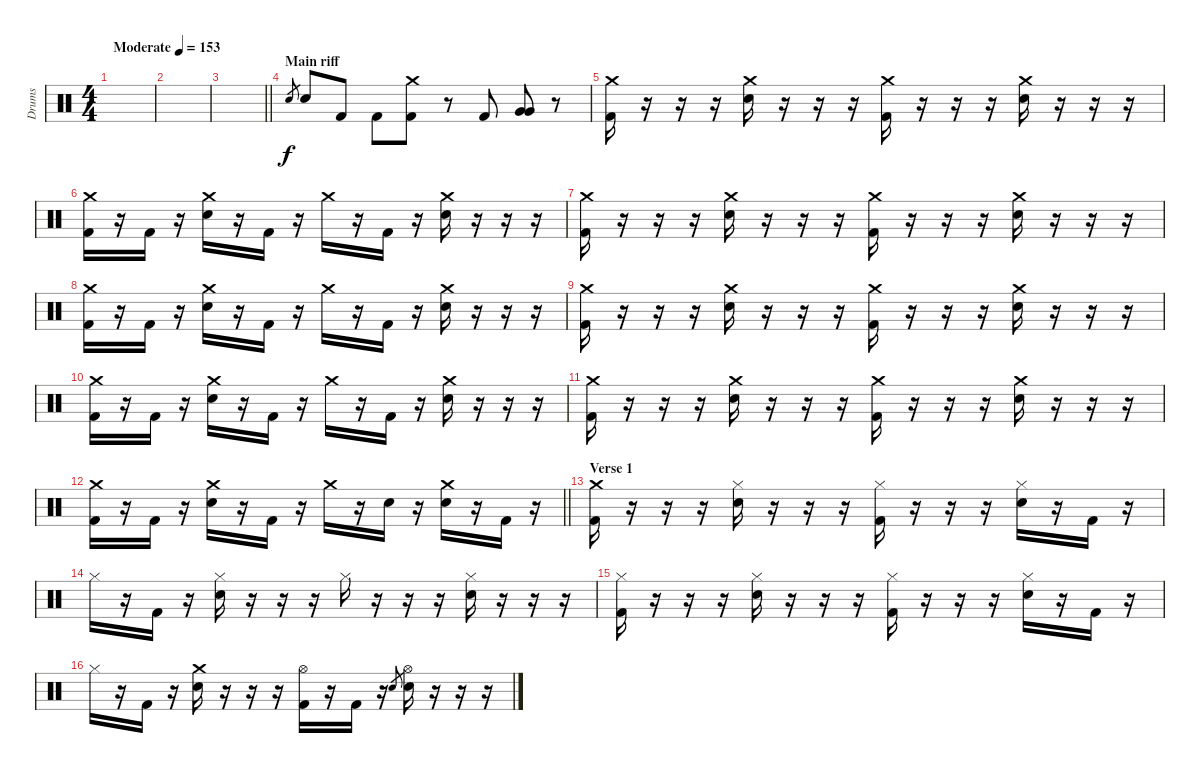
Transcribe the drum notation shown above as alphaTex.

\track ("Drums" "Drums") {instrument percussion}
\staff {score}
\articulation defaults
\ts (4 4)
\tempo (153 "Moderate")
\clef neutral
\ks c
|
|
\barLineRight lightlight
|
\section ("" "Main riff")
"Electric Snare (hit)".8{gr} "Electric Snare (hit)".8 "Kick (hit) 2".8 "Kick (hit) 2".8 ("Crash medium (hit)" "Kick (hit) 2").8 r.8 "Kick (hit) 2".8 ("Very Low Tom (hit)" "Very Low Tom (hit)").8 r.8 |
("Crash medium (hit)" "Kick (hit) 2").16 r.16 r.16 r.16 ("Crash medium (hit)" "Electric Snare (hit)").16 r.16 r.16 r.16 ("Crash medium (hit)" "Kick (hit) 2").16 r.16 r.16 r.16 ("Crash medium (hit)" "Electric Snare (hit)").16 r.16 r.16 r.16 |
("Crash medium (hit)" "Kick (hit) 2").16 r.16 "Kick (hit) 2".16 r.16 ("Crash medium (hit)" "Electric Snare (hit)").16 r.16 "Kick (hit) 2".16 r.16 "Crash medium (hit)".16 r.16 "Kick (hit) 2".16 r.16 ("Crash medium (hit)" "Electric Snare (hit)").16 r.16 r.16 r.16 |
("Crash medium (hit)" "Kick (hit) 2").16 r.16 r.16 r.16 ("Crash medium (hit)" "Electric Snare (hit)").16 r.16 r.16 r.16 ("Crash medium (hit)" "Kick (hit) 2").16 r.16 r.16 r.16 ("Crash medium (hit)" "Electric Snare (hit)").16 r.16 r.16 r.16 |
("Crash medium (hit)" "Kick (hit) 2").16 r.16 "Kick (hit) 2".16 r.16 ("Crash medium (hit)" "Electric Snare (hit)").16 r.16 "Kick (hit) 2".16 r.16 "Crash medium (hit)".16 r.16 "Kick (hit) 2".16 r.16 ("Crash medium (hit)" "Electric Snare (hit)").16 r.16 r.16 r.16 |
("Crash medium (hit)" "Kick (hit) 2").16 r.16 r.16 r.16 ("Crash medium (hit)" "Electric Snare (hit)").16 r.16 r.16 r.16 ("Crash medium (hit)" "Kick (hit) 2").16 r.16 r.16 r.16 ("Crash medium (hit)" "Electric Snare (hit)").16 r.16 r.16 r.16 |
("Crash medium (hit)" "Kick (hit) 2").16 r.16 "Kick (hit) 2".16 r.16 ("Crash medium (hit)" "Electric Snare (hit)").16 r.16 "Kick (hit) 2".16 r.16 "Crash medium (hit)".16 r.16 "Kick (hit) 2".16 r.16 ("Crash medium (hit)" "Electric Snare (hit)").16 r.16 r.16 r.16 |
("Crash medium (hit)" "Kick (hit) 2").16 r.16 r.16 r.16 ("Crash medium (hit)" "Electric Snare (hit)").16 r.16 r.16 r.16 ("Crash medium (hit)" "Kick (hit) 2").16 r.16 r.16 r.16 ("Crash medium (hit)" "Electric Snare (hit)").16 r.16 r.16 r.16 |
\barLineRight lightlight
("Crash medium (hit)" "Kick (hit) 2").16 r.16 "Kick (hit) 2".16 r.16 ("Crash medium (hit)" "Electric Snare (hit)").16 r.16 "Kick (hit) 2".16 r.16 "Crash medium (hit)".16 r.16 "Electric Snare (hit)".16 r.16 ("Crash medium (hit)" "Electric Snare (hit)").16 r.16 "Kick (hit) 2".16 r.16 |
\section ("" "Verse 1")
("Crash medium (hit)" "Kick (hit) 2").16 r.16 r.16 r.16 ("Hi-Hat (closed)" "Electric Snare (hit)").16 r.16 r.16 r.16 ("Hi-Hat (closed)" "Kick (hit) 2").16 r.16 r.16 r.16 ("Hi-Hat (closed)" "Electric Snare (hit)").16 r.16 "Kick (hit) 2".16 r.16 |
"Hi-Hat (closed)".16 r.16 "Kick (hit) 2".16 r.16 ("Hi-Hat (closed)" "Electric Snare (hit)").16 r.16 r.16 r.16 "Hi-Hat (closed)".16 r.16 r.16 r.16 ("Hi-Hat (closed)" "Electric Snare (hit)").16 r.16 r.16 r.16 |
("Hi-Hat (closed)" "Kick (hit) 2").16 r.16 r.16 r.16 ("Hi-Hat (closed)" "Electric Snare (hit)").16 r.16 r.16 r.16 ("Hi-Hat (closed)" "Kick (hit) 2").16 r.16 r.16 r.16 ("Hi-Hat (closed)" "Electric Snare (hit)").16 r.16 "Kick (hit) 2".16 r.16 |
"Hi-Hat (closed)".16 r.16 "Kick (hit) 2".16 r.16 ("Crash medium (hit)" "Electric Snare (hit)").16 r.16 r.16 r.16 ("Hi-Hat (open)" "Kick (hit) 2").16 r.16 "Kick (hit) 2".16 r.16 "Electric Snare (hit)".8{gr} ("Hi-Hat (open)" "Electric Snare (hit)").16 r.16 r.16 r.16
